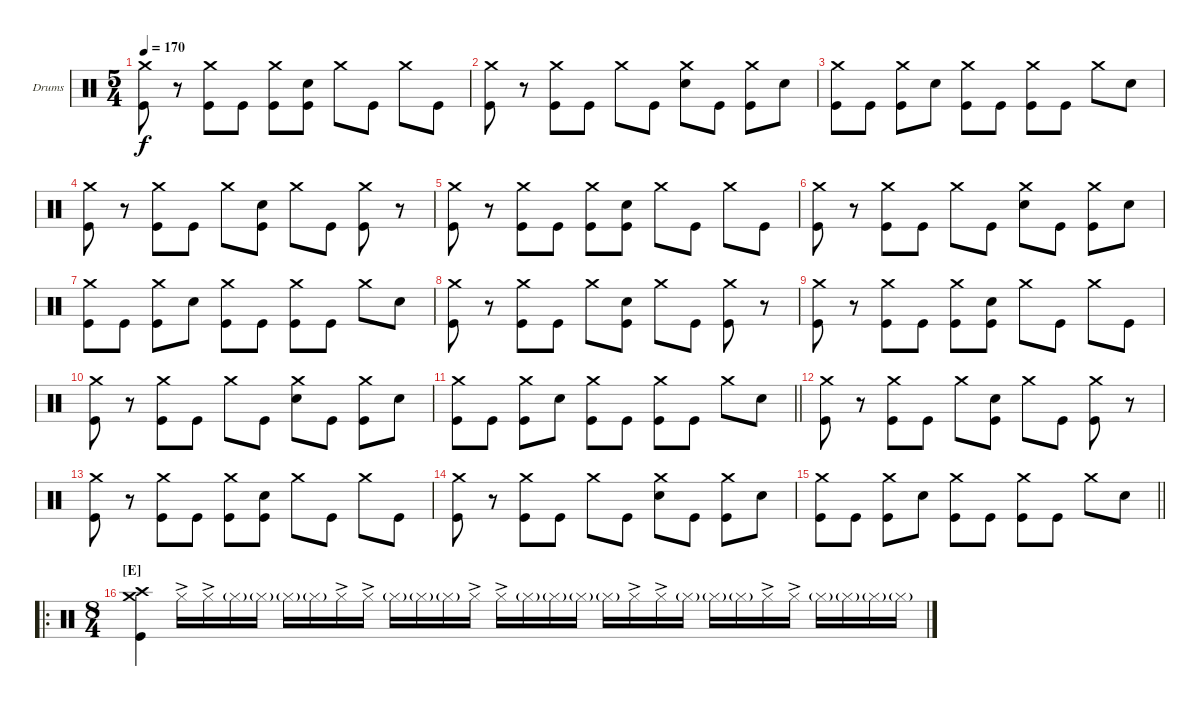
\bracketExtendMode groupsimilarinstruments
\firstSystemTrackNameOrientation horizontal
\otherSystemsTrackNameOrientation horizontal
\track ("Drumkit" "Drums") {multiBarRest instrument percussion}
\staff {score}
\articulation defaults
\ts (5 4)
\tempo 170
\clef neutral
\ks c
("Crash medium (hit)" "Kick (hit)").8{dy f} r.8 ("Crash medium (hit)" "Kick (hit)").8 "Kick (hit)".8 ("Crash medium (hit)" "Kick (hit)").8 ("Snare (hit) 2" "Kick (hit)").8 "Crash medium (hit)".8 "Kick (hit)".8 "Crash medium (hit)".8 "Kick (hit)".8 |
("Kick (hit)" "Crash medium (hit)").8 r.8 ("Kick (hit)" "Crash medium (hit)").8 "Kick (hit)".8 "Crash medium (hit)".8 "Kick (hit)".8 ("Snare (hit) 2" "Crash medium (hit)").8 "Kick (hit)".8 ("Kick (hit)" "Crash medium (hit)").8 "Snare (hit) 2".8 |
("Crash medium (hit)" "Kick (hit)").8 "Kick (hit)".8 ("Crash medium (hit)" "Kick (hit)").8 "Snare (hit) 2".8 ("Crash medium (hit)" "Kick (hit)").8 "Kick (hit)".8 ("Crash medium (hit)" "Kick (hit)").8 "Kick (hit)".8 "Crash medium (hit)".8 "Snare (hit) 2".8 |
("Crash medium (hit)" "Kick (hit)").8 r.8 ("Crash medium (hit)" "Kick (hit)").8 "Kick (hit)".8 "Crash medium (hit)".8 ("Snare (hit) 2" "Kick (hit)").8 "Crash medium (hit)".8 "Kick (hit)".8 ("Crash medium (hit)" "Kick (hit)").8 r.8 |
("Crash medium (hit)" "Kick (hit)").8 r.8 ("Crash medium (hit)" "Kick (hit)").8 "Kick (hit)".8 ("Crash medium (hit)" "Kick (hit)").8 ("Snare (hit) 2" "Kick (hit)").8 "Crash medium (hit)".8 "Kick (hit)".8 "Crash medium (hit)".8 "Kick (hit)".8 |
("Crash medium (hit)" "Kick (hit)").8 r.8 ("Crash medium (hit)" "Kick (hit)").8 "Kick (hit)".8 "Crash medium (hit)".8 "Kick (hit)".8 ("Crash medium (hit)" "Snare (hit) 2").8 "Kick (hit)".8 ("Crash medium (hit)" "Kick (hit)").8 "Snare (hit) 2".8 |
("Crash medium (hit)" "Kick (hit)").8 "Kick (hit)".8 ("Crash medium (hit)" "Kick (hit)").8 "Snare (hit) 2".8 ("Crash medium (hit)" "Kick (hit)").8 "Kick (hit)".8 ("Crash medium (hit)" "Kick (hit)").8 "Kick (hit)".8 "Crash medium (hit)".8 "Snare (hit) 2".8 |
("Crash medium (hit)" "Kick (hit)").8 r.8 ("Crash medium (hit)" "Kick (hit)").8 "Kick (hit)".8 "Crash medium (hit)".8 ("Snare (hit) 2" "Kick (hit)").8 "Crash medium (hit)".8 "Kick (hit)".8 ("Crash medium (hit)" "Kick (hit)").8 r.8 |
("Crash medium (hit)" "Kick (hit)").8 r.8 ("Crash medium (hit)" "Kick (hit)").8 "Kick (hit)".8 ("Crash medium (hit)" "Kick (hit)").8 ("Snare (hit) 2" "Kick (hit)").8 "Crash medium (hit)".8 "Kick (hit)".8 "Crash medium (hit)".8 "Kick (hit)".8 |
("Crash medium (hit)" "Kick (hit)").8 r.8 ("Crash medium (hit)" "Kick (hit)").8 "Kick (hit)".8 "Crash medium (hit)".8 "Kick (hit)".8 ("Crash medium (hit)" "Snare (hit) 2").8 "Kick (hit)".8 ("Crash medium (hit)" "Kick (hit)").8 "Snare (hit) 2".8 |
\barLineRight lightlight
("Crash medium (hit)" "Kick (hit)").8 "Kick (hit)".8 ("Crash medium (hit)" "Kick (hit)").8 "Snare (hit) 2".8 ("Crash medium (hit)" "Kick (hit)").8 "Kick (hit)".8 ("Crash medium (hit)" "Kick (hit)").8 "Kick (hit)".8 "Crash medium (hit)".8 "Snare (hit) 2".8 |
("Crash medium (hit)" "Kick (hit)").8 r.8 ("Crash medium (hit)" "Kick (hit)").8 "Kick (hit)".8 "Crash medium (hit)".8 ("Snare (hit) 2" "Kick (hit)").8 "Crash medium (hit)".8 "Kick (hit)".8 ("Crash medium (hit)" "Kick (hit)").8 r.8 |
("Crash medium (hit)" "Kick (hit)").8 r.8 ("Crash medium (hit)" "Kick (hit)").8 "Kick (hit)".8 ("Crash medium (hit)" "Kick (hit)").8 ("Snare (hit) 2" "Kick (hit)").8 "Crash medium (hit)".8 "Kick (hit)".8 "Crash medium (hit)".8 "Kick (hit)".8 |
("Crash medium (hit)" "Kick (hit)").8 r.8 ("Crash medium (hit)" "Kick (hit)").8 "Kick (hit)".8 "Crash medium (hit)".8 "Kick (hit)".8 ("Crash medium (hit)" "Snare (hit) 2").8 "Kick (hit)".8 ("Crash medium (hit)" "Kick (hit)").8 "Snare (hit) 2".8 |
\barLineRight lightlight
("Crash medium (hit)" "Kick (hit)").8 "Kick (hit)".8 ("Crash medium (hit)" "Kick (hit)").8 "Snare (hit) 2".8 ("Crash medium (hit)" "Kick (hit)").8 "Kick (hit)".8 ("Crash medium (hit)" "Kick (hit)").8 "Kick (hit)".8 "Crash medium (hit)".8 "Snare (hit) 2".8 |
\ro
\ts (8 4)
\section ("E" "")
("Crash medium (hit)" "Crash high (hit)" "Kick (hit)").4 "Hi-Hat (closed)"{ac}.16 "Hi-Hat (closed)"{ac}.16 "Hi-Hat (closed)"{g}.16 "Hi-Hat (closed)"{g}.16 "Hi-Hat (closed)"{g}.16 "Hi-Hat (closed)"{g}.16 "Hi-Hat (closed)"{ac}.16 "Hi-Hat (closed)"{ac}.16{beam split} "Hi-Hat (closed)"{g}.16 "Hi-Hat (closed)"{g}.16 "Hi-Hat (closed)"{g}.16 "Hi-Hat (closed)"{ac}.16 "Hi-Hat (closed)"{ac}.16 "Hi-Hat (closed)"{g}.16 "Hi-Hat (closed)"{g}.16 "Hi-Hat (closed)"{g}.16{beam split} "Hi-Hat (closed)"{g}.16 "Hi-Hat (closed)"{ac}.16 "Hi-Hat (closed)"{ac}.16 "Hi-Hat (closed)"{g}.16 "Hi-Hat (closed)"{g}.16 "Hi-Hat (closed)"{g}.16 "Hi-Hat (closed)"{ac}.16 "Hi-Hat (closed)"{ac}.16{beam split} "Hi-Hat (closed)"{g}.16 "Hi-Hat (closed)"{g}.16 "Hi-Hat (closed)"{g}.16 "Hi-Hat (closed)"{g}.16
